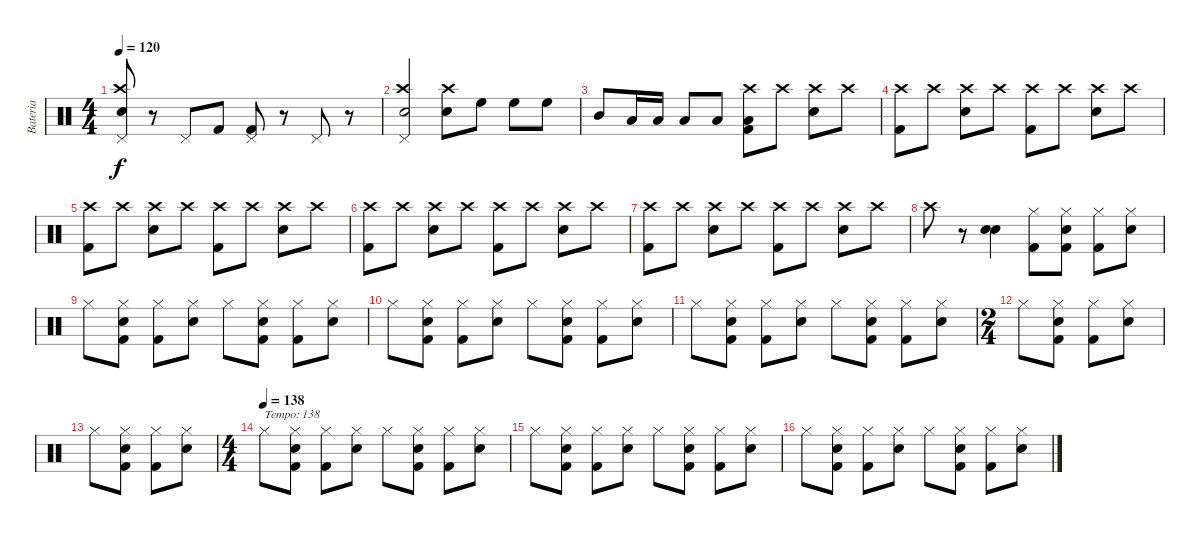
\track ("Bateria" "Bateria") {instrument percussion}
\staff {score}
\articulation defaults
\ts (4 4)
\tempo 120
\clef neutral
\ks c
("Pedal Hi-Hat (hit)" "Crash high (hit)" "Electric Snare (hit)").8{dy f} r.8 "Pedal Hi-Hat (hit)".8 "Kick (hit) 2".8 ("Pedal Hi-Hat (hit)" "Kick (hit) 2").8 r.8 "Pedal Hi-Hat (hit)".8 r.8 |
("Pedal Hi-Hat (hit)" "Crash high (hit)" "Electric Snare (hit)").2 ("Crash high (hit)" "Electric Snare (hit)").8 "High Floor Tom (hit)".8 "High Floor Tom (hit)".8 "High Floor Tom (hit)".8 |
"Mid Tom (hit)".8 "Low Tom (hit)".16 "Low Tom (hit)".16 "Low Tom (hit)".8 "Low Tom (hit)".8 ("Crash high (hit)" "Low Tom (hit)" "Kick (hit) 2").8 "Crash high (hit)".8 ("Crash high (hit)" "Electric Snare (hit)").8 "Crash high (hit)".8 |
("Crash high (hit)" "Kick (hit) 2").8 "Crash high (hit)".8 ("Crash high (hit)" "Electric Snare (hit)").8 "Crash high (hit)".8 ("Crash high (hit)" "Kick (hit) 2").8 "Crash high (hit)".8 ("Crash high (hit)" "Electric Snare (hit)").8 "Crash high (hit)".8 |
("Crash high (hit)" "Kick (hit) 2").8 "Crash high (hit)".8 ("Crash high (hit)" "Electric Snare (hit)").8 "Crash high (hit)".8 ("Crash high (hit)" "Kick (hit) 2").8 "Crash high (hit)".8 ("Crash high (hit)" "Electric Snare (hit)").8 "Crash high (hit)".8 |
("Crash high (hit)" "Kick (hit) 2").8 "Crash high (hit)".8 ("Crash high (hit)" "Electric Snare (hit)").8 "Crash high (hit)".8 ("Crash high (hit)" "Kick (hit) 2").8 "Crash high (hit)".8 ("Crash high (hit)" "Electric Snare (hit)").8 "Crash high (hit)".8 |
("Crash high (hit)" "Kick (hit) 2").8 "Crash high (hit)".8 ("Crash high (hit)" "Electric Snare (hit)").8 "Crash high (hit)".8 ("Crash high (hit)" "Kick (hit) 2").8 "Crash high (hit)".8 ("Crash high (hit)" "Electric Snare (hit)").8 "Crash high (hit)".8 |
"Crash high (hit)".8 r.8 ("Electric Snare (hit)" "Electric Snare (hit)").4 ("Hi-Hat (closed)" "Kick (hit) 2").8 ("Electric Snare (hit)" "Hi-Hat (closed)" "Kick (hit) 2").8 ("Hi-Hat (closed)" "Kick (hit) 2").8 ("Electric Snare (hit)" "Hi-Hat (closed)").8 |
"Hi-Hat (closed)".8 ("Electric Snare (hit)" "Hi-Hat (closed)" "Kick (hit) 2").8 ("Hi-Hat (closed)" "Kick (hit) 2").8 ("Electric Snare (hit)" "Hi-Hat (closed)").8 "Hi-Hat (closed)".8 ("Electric Snare (hit)" "Hi-Hat (closed)" "Kick (hit) 2").8 ("Hi-Hat (closed)" "Kick (hit) 2").8 ("Electric Snare (hit)" "Hi-Hat (closed)").8 |
"Hi-Hat (closed)".8 ("Electric Snare (hit)" "Hi-Hat (closed)" "Kick (hit) 2").8 ("Hi-Hat (closed)" "Kick (hit) 2").8 ("Electric Snare (hit)" "Hi-Hat (closed)").8 "Hi-Hat (closed)".8 ("Electric Snare (hit)" "Hi-Hat (closed)" "Kick (hit) 2").8 ("Hi-Hat (closed)" "Kick (hit) 2").8 ("Electric Snare (hit)" "Hi-Hat (closed)").8 |
"Hi-Hat (closed)".8 ("Electric Snare (hit)" "Hi-Hat (closed)" "Kick (hit) 2").8 ("Hi-Hat (closed)" "Kick (hit) 2").8 ("Electric Snare (hit)" "Hi-Hat (closed)").8 "Hi-Hat (closed)".8 ("Electric Snare (hit)" "Hi-Hat (closed)" "Kick (hit) 2").8 ("Hi-Hat (closed)" "Kick (hit) 2").8 ("Electric Snare (hit)" "Hi-Hat (closed)").8 |
\ts (2 4)
"Hi-Hat (closed)".8 ("Electric Snare (hit)" "Hi-Hat (closed)" "Kick (hit) 2").8 ("Hi-Hat (closed)" "Kick (hit) 2").8 ("Electric Snare (hit)" "Hi-Hat (closed)").8 |
"Hi-Hat (closed)".8 ("Electric Snare (hit)" "Hi-Hat (closed)" "Kick (hit) 2").8 ("Hi-Hat (closed)" "Kick (hit) 2").8 ("Electric Snare (hit)" "Hi-Hat (closed)").8 |
\ts (4 4)
\tempo (138)
"Hi-Hat (closed)".8{txt "Tempo: 138"} ("Electric Snare (hit)" "Hi-Hat (closed)" "Kick (hit) 2").8 ("Hi-Hat (closed)" "Kick (hit) 2").8 ("Electric Snare (hit)" "Hi-Hat (closed)").8 "Hi-Hat (closed)".8 ("Electric Snare (hit)" "Hi-Hat (closed)" "Kick (hit) 2").8 ("Hi-Hat (closed)" "Kick (hit) 2").8 ("Electric Snare (hit)" "Hi-Hat (closed)").8 |
"Hi-Hat (closed)".8 ("Electric Snare (hit)" "Hi-Hat (closed)" "Kick (hit) 2").8 ("Hi-Hat (closed)" "Kick (hit) 2").8 ("Electric Snare (hit)" "Hi-Hat (closed)").8 "Hi-Hat (closed)".8 ("Electric Snare (hit)" "Hi-Hat (closed)" "Kick (hit) 2").8 ("Hi-Hat (closed)" "Kick (hit) 2").8 ("Electric Snare (hit)" "Hi-Hat (closed)").8 |
"Hi-Hat (closed)".8 ("Electric Snare (hit)" "Hi-Hat (closed)" "Kick (hit) 2").8 ("Hi-Hat (closed)" "Kick (hit) 2").8 ("Electric Snare (hit)" "Hi-Hat (closed)").8 "Hi-Hat (closed)".8 ("Electric Snare (hit)" "Hi-Hat (closed)" "Kick (hit) 2").8 ("Hi-Hat (closed)" "Kick (hit) 2").8 ("Electric Snare (hit)" "Hi-Hat (closed)").8
